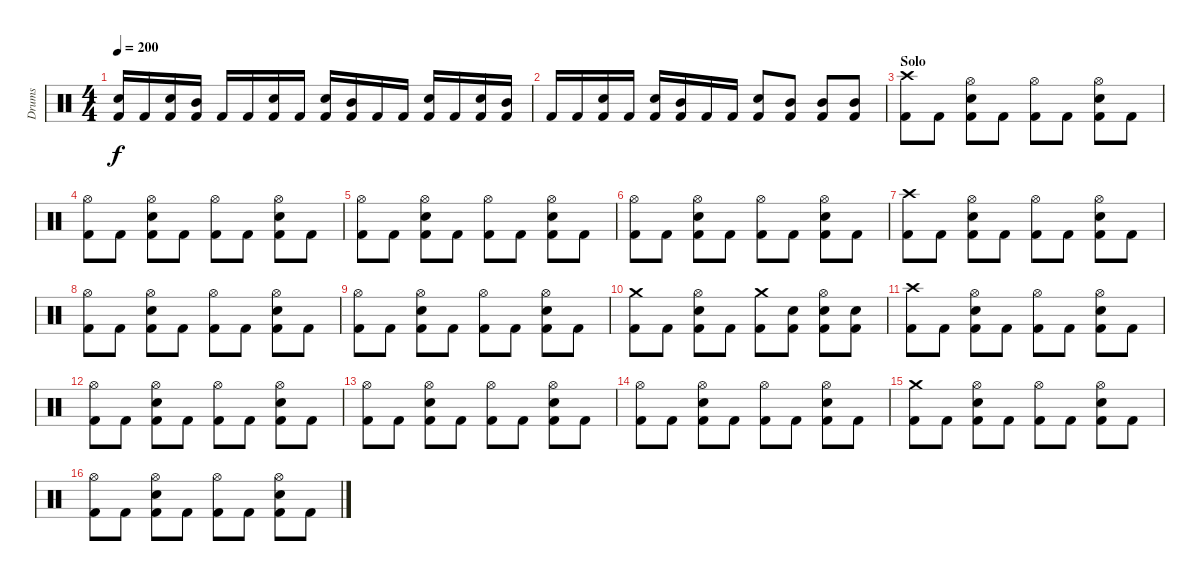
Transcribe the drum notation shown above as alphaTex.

\track ("Drums" "Drums") {instrument percussion}
\staff {score}
\articulation defaults
\ts (4 4)
\tempo 200
\clef neutral
\ks c
("Snare (hit) 2" "Kick (hit) 2").16{dy f} "Kick (hit) 2".16 ("Snare (hit) 2" "Kick (hit) 2").16 ("Mid Tom (hit)" "Kick (hit) 2").16 "Kick (hit) 2".16 "Kick (hit) 2".16 ("Snare (hit) 2" "Kick (hit) 2").16 "Kick (hit) 2".16 ("Snare (hit) 2" "Kick (hit) 2").16 ("Mid Tom (hit)" "Kick (hit) 2").16 "Kick (hit) 2".16 "Kick (hit) 2".16 ("Snare (hit) 2" "Kick (hit) 2").16 "Kick (hit) 2".16 ("Snare (hit) 2" "Kick (hit) 2").16 ("Mid Tom (hit)" "Kick (hit) 2").16 |
"Kick (hit) 2".16 "Kick (hit) 2".16 ("Snare (hit) 2" "Kick (hit) 2").16 "Kick (hit) 2".16 ("Snare (hit) 2" "Kick (hit) 2").16 ("Mid Tom (hit)" "Kick (hit) 2").16 "Kick (hit) 2".16 "Kick (hit) 2".16 ("Snare (hit) 2" "Kick (hit) 2").8 ("Mid Tom (hit)" "Kick (hit) 2").8 ("Mid Tom (hit)" "Kick (hit) 2").8 ("Mid Tom (hit)" "Kick (hit) 2").8 |
\section ("" "Solo")
("Crash high (hit)" "Kick (hit) 2").8 "Kick (hit) 2".8 ("Hi-Hat (open)" "Snare (hit) 2" "Kick (hit) 2").8 "Kick (hit) 2".8 ("Hi-Hat (open)" "Kick (hit) 2").8 "Kick (hit) 2".8 ("Hi-Hat (open)" "Snare (hit) 2" "Kick (hit) 2").8 "Kick (hit) 2".8 |
("Hi-Hat (open)" "Kick (hit) 2").8 "Kick (hit) 2".8 ("Hi-Hat (open)" "Snare (hit) 2" "Kick (hit) 2").8 "Kick (hit) 2".8 ("Hi-Hat (open)" "Kick (hit) 2").8 "Kick (hit) 2".8 ("Hi-Hat (open)" "Snare (hit) 2" "Kick (hit) 2").8 "Kick (hit) 2".8 |
("Hi-Hat (open)" "Kick (hit) 2").8 "Kick (hit) 2".8 ("Hi-Hat (open)" "Snare (hit) 2" "Kick (hit) 2").8 "Kick (hit) 2".8 ("Hi-Hat (open)" "Kick (hit) 2").8 "Kick (hit) 2".8 ("Hi-Hat (open)" "Snare (hit) 2" "Kick (hit) 2").8 "Kick (hit) 2".8 |
("Hi-Hat (open)" "Kick (hit) 2").8 "Kick (hit) 2".8 ("Hi-Hat (open)" "Snare (hit) 2" "Kick (hit) 2").8 "Kick (hit) 2".8 ("Hi-Hat (open)" "Kick (hit) 2").8 "Kick (hit) 2".8 ("Hi-Hat (open)" "Snare (hit) 2" "Kick (hit) 2").8 "Kick (hit) 2".8 |
("Crash high (hit)" "Kick (hit) 2").8 "Kick (hit) 2".8 ("Hi-Hat (open)" "Snare (hit) 2" "Kick (hit) 2").8 "Kick (hit) 2".8 ("Hi-Hat (open)" "Kick (hit) 2").8 "Kick (hit) 2".8 ("Hi-Hat (open)" "Snare (hit) 2" "Kick (hit) 2").8 "Kick (hit) 2".8 |
("Hi-Hat (open)" "Kick (hit) 2").8 "Kick (hit) 2".8 ("Hi-Hat (open)" "Snare (hit) 2" "Kick (hit) 2").8 "Kick (hit) 2".8 ("Hi-Hat (open)" "Kick (hit) 2").8 "Kick (hit) 2".8 ("Hi-Hat (open)" "Snare (hit) 2" "Kick (hit) 2").8 "Kick (hit) 2".8 |
("Hi-Hat (open)" "Kick (hit) 2").8 "Kick (hit) 2".8 ("Hi-Hat (open)" "Snare (hit) 2" "Kick (hit) 2").8 "Kick (hit) 2".8 ("Hi-Hat (open)" "Kick (hit) 2").8 "Kick (hit) 2".8 ("Hi-Hat (open)" "Snare (hit) 2" "Kick (hit) 2").8 "Kick (hit) 2".8 |
("Crash medium (hit)" "Kick (hit) 2").8 "Kick (hit) 2".8 ("Hi-Hat (open)" "Snare (hit) 2" "Kick (hit) 2").8 "Kick (hit) 2".8 ("Crash medium (hit)" "Kick (hit) 2").8 ("Snare (hit) 2" "Kick (hit) 2").8 ("Hi-Hat (open)" "Snare (hit) 2" "Kick (hit) 2").8 ("Snare (hit) 2" "Kick (hit) 2").8 |
("Crash high (hit)" "Kick (hit) 2").8 "Kick (hit) 2".8 ("Hi-Hat (open)" "Snare (hit) 2" "Kick (hit) 2").8 "Kick (hit) 2".8 ("Hi-Hat (open)" "Kick (hit) 2").8 "Kick (hit) 2".8 ("Hi-Hat (open)" "Snare (hit) 2" "Kick (hit) 2").8 "Kick (hit) 2".8 |
("Hi-Hat (open)" "Kick (hit) 2").8 "Kick (hit) 2".8 ("Hi-Hat (open)" "Snare (hit) 2" "Kick (hit) 2").8 "Kick (hit) 2".8 ("Hi-Hat (open)" "Kick (hit) 2").8 "Kick (hit) 2".8 ("Hi-Hat (open)" "Snare (hit) 2" "Kick (hit) 2").8 "Kick (hit) 2".8 |
("Hi-Hat (open)" "Kick (hit) 2").8 "Kick (hit) 2".8 ("Hi-Hat (open)" "Snare (hit) 2" "Kick (hit) 2").8 "Kick (hit) 2".8 ("Hi-Hat (open)" "Kick (hit) 2").8 "Kick (hit) 2".8 ("Hi-Hat (open)" "Snare (hit) 2" "Kick (hit) 2").8 "Kick (hit) 2".8 |
("Hi-Hat (open)" "Kick (hit) 2").8 "Kick (hit) 2".8 ("Hi-Hat (open)" "Snare (hit) 2" "Kick (hit) 2").8 "Kick (hit) 2".8 ("Hi-Hat (open)" "Kick (hit) 2").8 "Kick (hit) 2".8 ("Hi-Hat (open)" "Snare (hit) 2" "Kick (hit) 2").8 "Kick (hit) 2".8 |
("Crash medium (hit)" "Kick (hit) 2").8 "Kick (hit) 2".8 ("Hi-Hat (open)" "Snare (hit) 2" "Kick (hit) 2").8 "Kick (hit) 2".8 ("Hi-Hat (open)" "Kick (hit) 2").8 "Kick (hit) 2".8 ("Hi-Hat (open)" "Snare (hit) 2" "Kick (hit) 2").8 "Kick (hit) 2".8 |
("Hi-Hat (open)" "Kick (hit) 2").8 "Kick (hit) 2".8 ("Hi-Hat (open)" "Snare (hit) 2" "Kick (hit) 2").8 "Kick (hit) 2".8 ("Hi-Hat (open)" "Kick (hit) 2").8 "Kick (hit) 2".8 ("Hi-Hat (open)" "Snare (hit) 2" "Kick (hit) 2").8 "Kick (hit) 2".8
